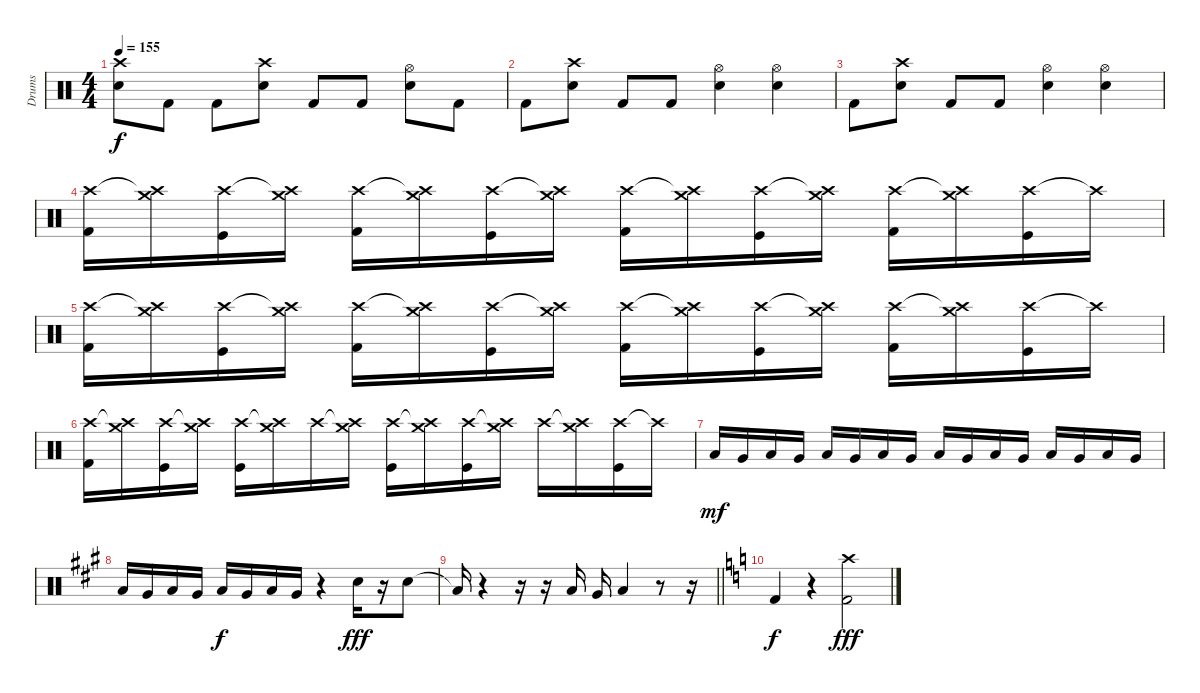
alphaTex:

\track ("Drums" "Drums") {instrument percussion}
\staff {score}
\articulation defaults
\ts (4 4)
\tempo 155
\clef neutral
\ks c
("Crash high (hit)" "Snare (hit) 2").8{dy f} "Kick (hit) 2".8 "Kick (hit) 2".8 ("Crash high (hit)" "Snare (hit) 2").8 "Kick (hit) 2".8 "Kick (hit) 2".8 ("Hi-Hat (open)" "Snare (hit) 2").8 "Kick (hit) 2".8 |
"Kick (hit) 2".8 ("Crash high (hit)" "Snare (hit) 2").8 "Kick (hit) 2".8 "Kick (hit) 2".8 ("Hi-Hat (open)" "Snare (hit) 2").4 ("Hi-Hat (open)" "Snare (hit) 2").4 |
"Kick (hit) 2".8 ("Crash high (hit)" "Snare (hit) 2").8 "Kick (hit) 2".8 "Kick (hit) 2".8 ("Hi-Hat (open)" "Snare (hit) 2").4 ("Hi-Hat (open)" "Snare (hit) 2").4 |
("Crash high (hit)" "Kick (hit) 2").16 ("Crash high (hit)"{t} "Crash medium (hit)").16 ("Crash high (hit)" "Kick (hit)").16 ("Crash high (hit)"{t} "Crash medium (hit)").16 ("Crash high (hit)" "Kick (hit) 2").16 ("Crash high (hit)"{t} "Crash medium (hit)").16 ("Crash high (hit)" "Kick (hit)").16 ("Crash high (hit)"{t} "Crash medium (hit)").16 ("Crash high (hit)" "Kick (hit) 2").16 ("Crash high (hit)"{t} "Crash medium (hit)").16 ("Crash high (hit)" "Kick (hit)").16 ("Crash high (hit)"{t} "Crash medium (hit)").16 ("Crash high (hit)" "Kick (hit) 2").16 ("Crash high (hit)"{t} "Crash medium (hit)").16 ("Crash high (hit)" "Kick (hit)").16 "Crash high (hit)"{t}.16 |
("Crash high (hit)" "Kick (hit) 2").16 ("Crash high (hit)"{t} "Crash medium (hit)").16 ("Crash high (hit)" "Kick (hit)").16 ("Crash high (hit)"{t} "Crash medium (hit)").16 ("Crash high (hit)" "Kick (hit) 2").16 ("Crash high (hit)"{t} "Crash medium (hit)").16 ("Crash high (hit)" "Kick (hit)").16 ("Crash high (hit)"{t} "Crash medium (hit)").16 ("Crash high (hit)" "Kick (hit) 2").16 ("Crash high (hit)"{t} "Crash medium (hit)").16 ("Crash high (hit)" "Kick (hit)").16 ("Crash high (hit)"{t} "Crash medium (hit)").16 ("Crash high (hit)" "Kick (hit) 2").16 ("Crash high (hit)"{t} "Crash medium (hit)").16 ("Crash high (hit)" "Kick (hit)").16 "Crash high (hit)"{t}.16 |
("Crash high (hit)" "Kick (hit) 2").16 ("Crash high (hit)"{t} "Crash medium (hit)").16 ("Crash high (hit)" "Kick (hit)").16 ("Crash high (hit)"{t} "Crash medium (hit)").16 ("Crash high (hit)" "Kick (hit)").16 ("Crash high (hit)"{t} "Crash medium (hit)").16 "Crash high (hit)".16 ("Crash high (hit)"{t} "Crash medium (hit)").16 ("Crash high (hit)" "Kick (hit)").16 ("Crash high (hit)"{t} "Crash medium (hit)").16 ("Crash high (hit)" "Kick (hit)").16 ("Crash high (hit)"{t} "Crash medium (hit)").16 "Crash high (hit)".16 ("Crash high (hit)"{t} "Crash medium (hit)").16 ("Crash high (hit)" "Kick (hit)").16 "Crash high (hit)"{t}.16 |
"Low Floor Tom (hit)".16{dy mf} "Very Low Tom (hit)".16 "Low Floor Tom (hit)".16 "Very Low Tom (hit)".16 "Low Floor Tom (hit)".16 "Very Low Tom (hit)".16 "Low Floor Tom (hit)".16 "Very Low Tom (hit)".16 "Low Floor Tom (hit)".16 "Very Low Tom (hit)".16 "Low Floor Tom (hit)".16 "Very Low Tom (hit)".16 "Low Floor Tom (hit)".16 "Very Low Tom (hit)".16 "Low Floor Tom (hit)".16 "Very Low Tom (hit)".16 |
\ks a "Low Floor Tom (hit)".16 "Very Low Tom (hit)".16 "Low Floor Tom (hit)".16 "Very Low Tom (hit)".16 "Low Floor Tom (hit)".16{dy f} "Very Low Tom (hit)".16 "Low Floor Tom (hit)".16 "Very Low Tom (hit)".16
r.4 "Snare (hit) 2".16{dy fff} r.16 "Electric Snare (hit)".8 |
\barLineRight lightlight "Low Floor Tom (hit)"{t}.16
r.4 r.16 r.16 "Low Floor Tom (hit)".16 "Very Low Tom (hit)".16 "Low Floor Tom (hit)".4 r.8 r.16 |
\ks c "Kick (hit) 2".4{dy f}
r.4 ("Crash high (hit)" "Kick (hit) 2").2{dy fff}
